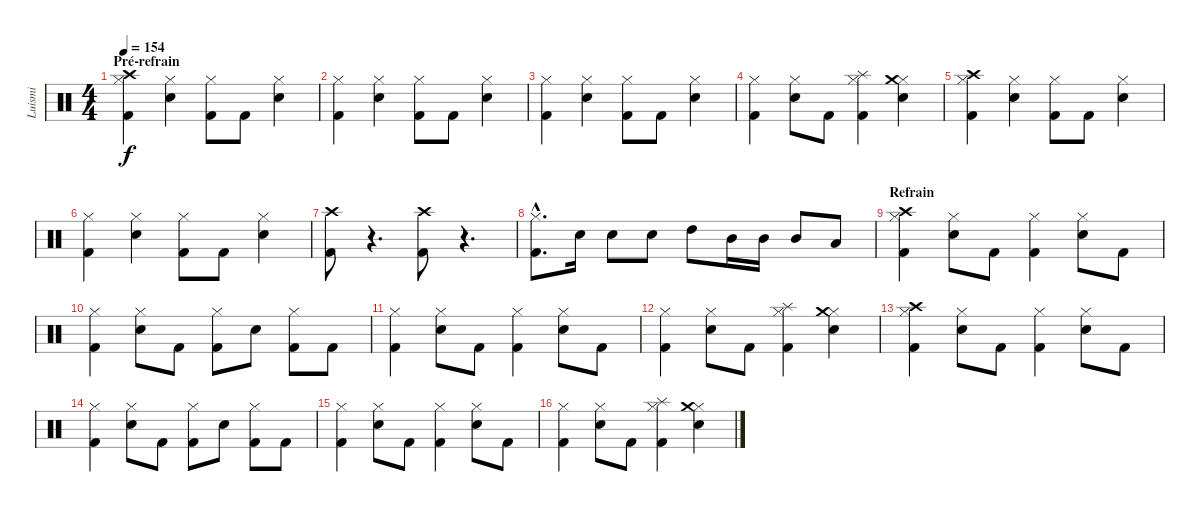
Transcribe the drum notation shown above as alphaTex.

\track ("Luismi" "Luismi") {instrument percussion}
\staff {score}
\articulation defaults
\ts (4 4)
\section ("" "Pré-refrain")
\tempo 154
\clef neutral
\ks c
("Kick (hit) 2" "Hi-Hat (closed)" "Crash high (hit)").4{dy f} ("Snare (hit) 2" "Hi-Hat (closed)").4 ("Kick (hit) 2" "Hi-Hat (closed)").8 "Kick (hit) 2".8 ("Snare (hit) 2" "Hi-Hat (closed)").4 |
("Kick (hit) 2" "Hi-Hat (closed)").4 ("Snare (hit) 2" "Hi-Hat (closed)").4 ("Kick (hit) 2" "Hi-Hat (closed)").8 "Kick (hit) 2".8 ("Snare (hit) 2" "Hi-Hat (closed)").4 |
("Kick (hit) 2" "Hi-Hat (closed)").4 ("Snare (hit) 2" "Hi-Hat (closed)").4 ("Kick (hit) 2" "Hi-Hat (closed)").8 "Kick (hit) 2".8 ("Snare (hit) 2" "Hi-Hat (closed)").4 |
("Kick (hit) 2" "Hi-Hat (closed)").4 ("Snare (hit) 2" "Hi-Hat (closed)").8 "Kick (hit) 2".8 ("Kick (hit) 2" "Hi-Hat (closed)" "Splash (hit)").4 ("Snare (hit) 2" "Hi-Hat (closed)" "Crash medium (hit)").4 |
("Kick (hit) 2" "Hi-Hat (closed)" "Crash high (hit)").4 ("Snare (hit) 2" "Hi-Hat (closed)").4 ("Kick (hit) 2" "Hi-Hat (closed)").8 "Kick (hit) 2".8 ("Snare (hit) 2" "Hi-Hat (closed)").4 |
("Kick (hit) 2" "Hi-Hat (closed)").4 ("Snare (hit) 2" "Hi-Hat (closed)").4 ("Kick (hit) 2" "Hi-Hat (closed)").8 "Kick (hit) 2".8 ("Snare (hit) 2" "Hi-Hat (closed)").4 |
("Kick (hit) 2" "Crash high (hit)").8 r.4{d} ("Kick (hit) 2" "Crash high (hit)").8 r.4{d} |
("Kick (hit) 2"{hac} "Hi-Hat (closed)"{hac}).8{d} "Snare (hit) 2".16 "Snare (hit) 2".8 "Snare (hit) 2".8 "High Tom (hit)".8 "Mid Tom (hit)".16 "Mid Tom (hit)".16 "Mid Tom (hit)".8 "Low Tom (hit)".8 |
\section ("" "Refrain")
("Kick (hit) 2" "Hi-Hat (closed)" "Crash high (hit)").4 ("Snare (hit) 2" "Hi-Hat (closed)").8 "Kick (hit) 2".8 ("Kick (hit) 2" "Hi-Hat (closed)").4 ("Snare (hit) 2" "Hi-Hat (closed)").8 "Kick (hit) 2".8 |
("Kick (hit) 2" "Hi-Hat (closed)").4 ("Snare (hit) 2" "Hi-Hat (closed)").8 "Kick (hit) 2".8 ("Kick (hit) 2" "Hi-Hat (closed)").8 "Snare (hit) 2".8 ("Kick (hit) 2" "Hi-Hat (closed)").8 "Kick (hit) 2".8 |
("Kick (hit) 2" "Hi-Hat (closed)").4 ("Snare (hit) 2" "Hi-Hat (closed)").8 "Kick (hit) 2".8 ("Kick (hit) 2" "Hi-Hat (closed)").4 ("Snare (hit) 2" "Hi-Hat (closed)").8 "Kick (hit) 2".8 |
("Kick (hit) 2" "Hi-Hat (closed)").4 ("Snare (hit) 2" "Hi-Hat (closed)").8 "Kick (hit) 2".8 ("Kick (hit) 2" "Hi-Hat (closed)" "Splash (hit)").4 ("Snare (hit) 2" "Hi-Hat (closed)" "Crash medium (hit)").4 |
("Kick (hit) 2" "Hi-Hat (closed)" "Crash high (hit)").4 ("Snare (hit) 2" "Hi-Hat (closed)").8 "Kick (hit) 2".8 ("Kick (hit) 2" "Hi-Hat (closed)").4 ("Snare (hit) 2" "Hi-Hat (closed)").8 "Kick (hit) 2".8 |
("Kick (hit) 2" "Hi-Hat (closed)").4 ("Snare (hit) 2" "Hi-Hat (closed)").8 "Kick (hit) 2".8 ("Kick (hit) 2" "Hi-Hat (closed)").8 "Snare (hit) 2".8 ("Kick (hit) 2" "Hi-Hat (closed)").8 "Kick (hit) 2".8 |
("Kick (hit) 2" "Hi-Hat (closed)").4 ("Snare (hit) 2" "Hi-Hat (closed)").8 "Kick (hit) 2".8 ("Kick (hit) 2" "Hi-Hat (closed)").4 ("Snare (hit) 2" "Hi-Hat (closed)").8 "Kick (hit) 2".8 |
("Kick (hit) 2" "Hi-Hat (closed)").4 ("Snare (hit) 2" "Hi-Hat (closed)").8 "Kick (hit) 2".8 ("Kick (hit) 2" "Hi-Hat (closed)" "Splash (hit)").4 ("Snare (hit) 2" "Hi-Hat (closed)" "Crash medium (hit)").4
